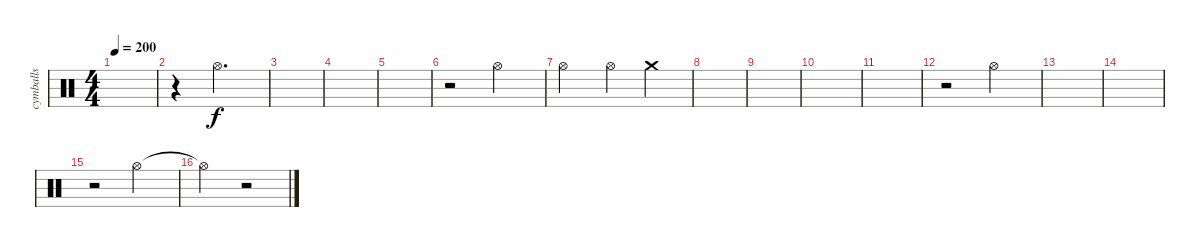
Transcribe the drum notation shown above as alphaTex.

\track ("cymballs" "cymballs") {instrument percussion}
\staff {score}
\articulation defaults
\ts (4 4)
\tempo 200
\clef neutral
\ks c
|
r.4 "Hi-Hat (open)".2{d} |
|
|
|
r.2 "Hi-Hat (open)".2 |
"Hi-Hat (open)".2 "Hi-Hat (open)".4 "Crash medium (hit)".4 |
|
|
|
|
r.2 "Hi-Hat (open)".2 |
|
|
r.2 "Hi-Hat (open)".2 |
"Hi-Hat (open)"{t}.2 r.2
